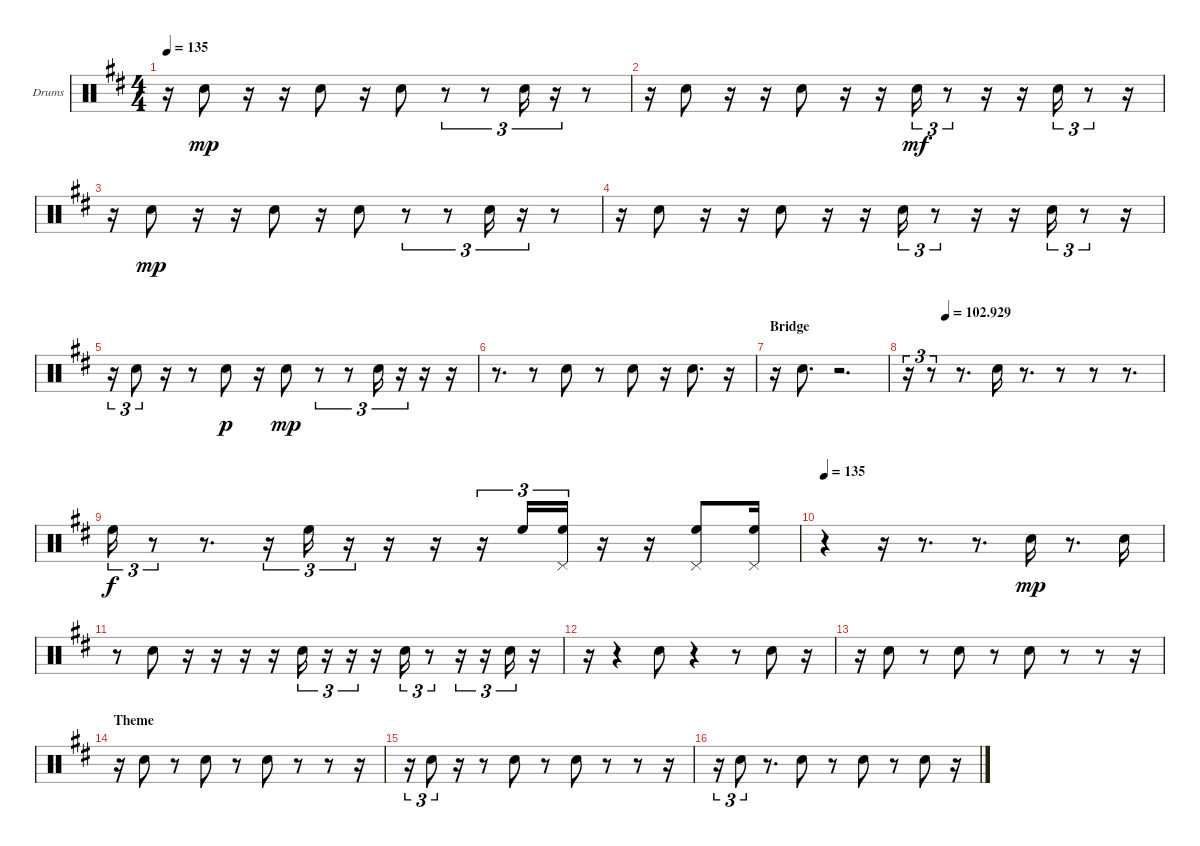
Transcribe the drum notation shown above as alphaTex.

\bracketExtendMode groupsimilarinstruments
\firstSystemTrackNameOrientation horizontal
\otherSystemsTrackNameOrientation horizontal
\track ("Snare" "Drums") {instrument percussion}
\staff {score}
\articulation defaults
\ts (4 4)
\tempo 135
\clef neutral
\ks d
r.16{dy mp} "Snare (hit) 2".8 r.16 r.16 "Snare (hit) 2".8 r.16 "Snare (hit) 2".8 r.8{tu (3 2)} r.8{tu (3 2)} "Snare (hit) 2".16{tu (3 2)} r.16{tu (3 2)} r.8 |
r.16 "Snare (hit) 2".8 r.16 r.16 "Snare (hit) 2".8 r.16 r.16 "Snare (hit) 2".16{tu (3 2) dy mf} r.8{tu (3 2)} r.16 r.16 "Snare (hit) 2".16{tu (3 2)} r.8{tu (3 2)} r.16 |
r.16 "Snare (hit) 2".8{dy mp} r.16 r.16 "Snare (hit) 2".8 r.16 "Snare (hit) 2".8 r.8{tu (3 2)} r.8{tu (3 2)} "Snare (hit) 2".16{tu (3 2)} r.16{tu (3 2)} r.8 |
r.16 "Snare (hit) 2".8 r.16 r.16 "Snare (hit) 2".8 r.16 r.16 "Snare (hit) 2".16{tu (3 2)} r.8{tu (3 2)} r.16 r.16 "Snare (hit) 2".16{tu (3 2)} r.8{tu (3 2)} r.16 |
r.16{tu (3 2)} "Snare (hit) 2".8{tu (3 2)} r.16 r.8 "Snare (hit) 2".8{dy p} r.16 "Snare (hit) 2".8{dy mp} r.8{tu (3 2)} r.8{tu (3 2)} "Snare (hit) 2".16{tu (3 2)} r.16{tu (3 2)} r.16 r.16 |
r.8{d} r.8 "Snare (hit) 2".8 r.8 "Snare (hit) 2".8 r.16 "Snare (hit) 2".8{d} r.16 |
\section ("" "Bridge")
r.16 "Snare (hit) 2".8{d} r.2{d} |
\tempo (102.929 0.15)
\scale
0.435282 r.16{tu (3 2)} r.8{tu (3 2)} r.8{d} "Snare (hit) 2".16 r.8{d} r.8 r.8 r.8{d} |
\scale
0.564252 "High Floor Tom (hit)".16{tu (3 2) dy f} r.8{tu (3 2)} r.8{d} r.16{tu (3 2)} "High Floor Tom (hit)".16{tu (3 2)} r.16{tu (3 2)} r.16 r.16 r.16{tu (3 2)} "High Floor Tom (hit)".16{tu (3 2)} ("High Floor Tom (hit)" "Pedal Hi-Hat (hit)").16{tu (3 2)} r.16 r.16 ("High Floor Tom (hit)" "Pedal Hi-Hat (hit)").8 ("High Floor Tom (hit)" "Pedal Hi-Hat (hit)").16 |
\tempo 135
r.4 r.16 r.8{d} r.8{d} "Snare (hit) 2".16{dy mp} r.8{d} "Snare (hit) 2".16 |
r.8 "Snare (hit) 2".8 r.16 r.16 r.16 r.16 "Snare (hit) 2".16{tu (3 2)} r.16{tu (3 2)} r.16{tu (3 2)} r.16 "Snare (hit) 2".16{tu (3 2)} r.8{tu (3 2)} r.16{tu (3 2)} r.16{tu (3 2)} "Snare (hit) 2".16{tu (3 2)} r.16 |
r.16 r.4 "Snare (hit) 2".8 r.4 r.8 "Snare (hit) 2".8 r.16 |
r.16 "Snare (hit) 2".8 r.8 "Snare (hit) 2".8 r.8 "Snare (hit) 2".8 r.8 r.8 r.16 |
\section ("" "Theme")
r.16 "Snare (hit) 2".8 r.8 "Snare (hit) 2".8 r.8 "Snare (hit) 2".8 r.8 r.8 r.16 |
r.16{tu (3 2)} "Snare (hit) 2".8{tu (3 2)} r.16 r.8 "Snare (hit) 2".8 r.8 "Snare (hit) 2".8 r.8 r.8 r.16 |
r.16{tu (3 2)} "Snare (hit) 2".8{tu (3 2)} r.8{d} "Snare (hit) 2".8 r.8 "Snare (hit) 2".8 r.8 "Snare (hit) 2".8 r.16
